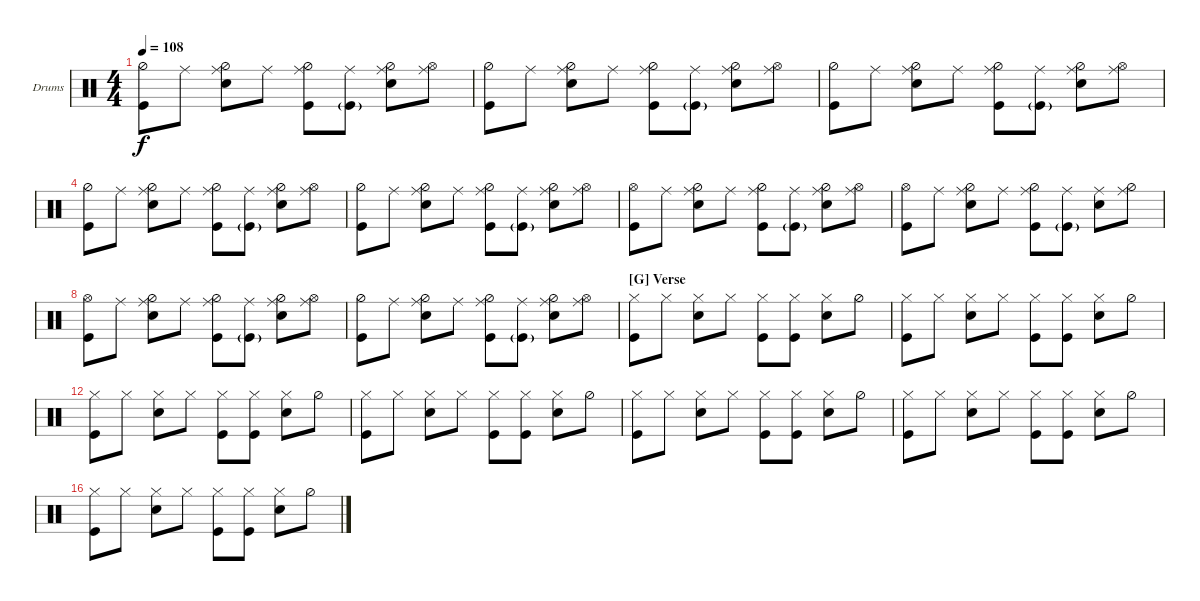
\defaultSystemsLayout 4
\bracketExtendMode nobrackets
\firstSystemTrackNameOrientation horizontal
\otherSystemsTrackNameOrientation horizontal
\defaultBarNumberDisplay FirstOfSystem
\track ("Drumkit" "Drums") {instrument percussion}
\staff {score}
\articulation defaults
\ts (4 4)
\tempo 108
\clef neutral
\ks c
("Kick (hit)" "Hi-Hat (half)").8{dy f} "Ride (middle)".8 ("Snare (hit) 2" "Hi-Hat (half)" "Ride (middle)").8 "Ride (middle)".8 ("Kick (hit)" "Hi-Hat (half)" "Ride (middle)").8 ("Kick (hit)"{g} "Ride (middle)").8 ("Snare (hit) 2" "Hi-Hat (half)" "Ride (middle)").8 ("Hi-Hat (open)" "Ride (middle)").8 |
("Kick (hit)" "Hi-Hat (half)").8 "Ride (middle)".8 ("Snare (hit) 2" "Hi-Hat (half)" "Ride (middle)").8 "Ride (middle)".8 ("Kick (hit)" "Hi-Hat (half)" "Ride (middle)").8 ("Kick (hit)"{g} "Ride (middle)").8 ("Snare (hit) 2" "Hi-Hat (half)" "Ride (middle)").8 ("Hi-Hat (open)" "Ride (middle)").8 |
("Kick (hit)" "Hi-Hat (half)").8 "Ride (middle)".8 ("Snare (hit) 2" "Hi-Hat (half)" "Ride (middle)").8 "Ride (middle)".8 ("Kick (hit)" "Hi-Hat (half)" "Ride (middle)").8 ("Kick (hit)"{g} "Ride (middle)").8 ("Snare (hit) 2" "Hi-Hat (half)" "Ride (middle)").8 ("Hi-Hat (open)" "Ride (middle)").8 |
("Kick (hit)" "Hi-Hat (half)").8 "Ride (middle)".8 ("Snare (hit) 2" "Hi-Hat (half)" "Ride (middle)").8 "Ride (middle)".8 ("Kick (hit)" "Hi-Hat (half)" "Ride (middle)").8 ("Kick (hit)"{g} "Ride (middle)").8 ("Snare (hit) 2" "Hi-Hat (half)" "Ride (middle)").8 ("Hi-Hat (open)" "Ride (middle)").8 |
("Kick (hit)" "Hi-Hat (half)").8 "Ride (middle)".8 ("Snare (hit) 2" "Hi-Hat (half)" "Ride (middle)").8 "Ride (middle)".8 ("Kick (hit)" "Hi-Hat (half)" "Ride (middle)").8 ("Kick (hit)"{g} "Ride (middle)").8 ("Snare (hit) 2" "Hi-Hat (half)" "Ride (middle)").8 ("Hi-Hat (open)" "Ride (middle)").8 |
("Kick (hit)" "Hi-Hat (open)").8 "Ride (middle)".8 ("Snare (hit) 2" "Hi-Hat (half)" "Ride (middle)").8 "Ride (middle)".8 ("Kick (hit)" "Hi-Hat (half)" "Ride (middle)").8 ("Kick (hit)"{g} "Ride (middle)").8 ("Snare (hit) 2" "Hi-Hat (half)" "Ride (middle)").8 ("Hi-Hat (open)" "Ride (middle)").8 |
("Kick (hit)" "Hi-Hat (open)").8 "Ride (middle)".8 ("Snare (hit) 2" "Hi-Hat (half)" "Ride (middle)").8 "Ride (middle)".8 ("Kick (hit)" "Hi-Hat (half)" "Ride (middle)").8 ("Kick (hit)"{g} "Ride (middle)").8 ("Snare (hit) 2" "Ride (middle)").8 ("Hi-Hat (half)" "Ride (middle)").8 |
("Kick (hit)" "Hi-Hat (open)").8 "Ride (middle)".8 ("Snare (hit) 2" "Hi-Hat (half)" "Ride (middle)").8 "Ride (middle)".8 ("Kick (hit)" "Hi-Hat (half)" "Ride (middle)").8 ("Kick (hit)"{g} "Ride (middle)").8 ("Snare (hit) 2" "Hi-Hat (half)" "Ride (middle)").8 ("Hi-Hat (open)" "Ride (middle)").8 |
("Kick (hit)" "Hi-Hat (half)").8 "Ride (middle)".8 ("Snare (hit) 2" "Hi-Hat (half)" "Ride (middle)").8 "Ride (middle)".8 ("Kick (hit)" "Hi-Hat (half)" "Ride (middle)").8 ("Kick (hit)"{g} "Ride (middle)").8 ("Snare (hit) 2" "Hi-Hat (half)" "Ride (middle)").8 ("Hi-Hat (open)" "Ride (middle)").8 |
\section ("G" "Verse")
("Kick (hit)" "Hi-Hat (closed)").8 "Hi-Hat (closed)".8 ("Snare (hit) 2" "Hi-Hat (closed)").8 "Hi-Hat (closed)".8 ("Kick (hit)" "Hi-Hat (closed)").8 ("Hi-Hat (closed)" "Kick (hit)").8 ("Snare (hit) 2" "Hi-Hat (closed)").8 "Hi-Hat (half)".8 |
("Kick (hit)" "Hi-Hat (closed)").8 "Hi-Hat (closed)".8 ("Snare (hit) 2" "Hi-Hat (closed)").8 "Hi-Hat (closed)".8 ("Kick (hit)" "Hi-Hat (closed)").8 ("Hi-Hat (closed)" "Kick (hit)").8 ("Snare (hit) 2" "Hi-Hat (closed)").8 "Hi-Hat (half)".8 |
("Kick (hit)" "Hi-Hat (closed)").8 "Hi-Hat (closed)".8 ("Snare (hit) 2" "Hi-Hat (closed)").8 "Hi-Hat (closed)".8 ("Hi-Hat (closed)" "Kick (hit)").8 ("Hi-Hat (closed)" "Kick (hit)").8 ("Snare (hit) 2" "Hi-Hat (closed)").8 "Hi-Hat (half)".8 |
("Kick (hit)" "Hi-Hat (closed)").8 "Hi-Hat (closed)".8 ("Snare (hit) 2" "Hi-Hat (closed)").8 "Hi-Hat (closed)".8 ("Kick (hit)" "Hi-Hat (closed)").8 ("Hi-Hat (closed)" "Kick (hit)").8 ("Snare (hit) 2" "Hi-Hat (closed)").8 "Hi-Hat (half)".8 |
("Kick (hit)" "Hi-Hat (closed)").8 "Hi-Hat (closed)".8 ("Snare (hit) 2" "Hi-Hat (closed)").8 "Hi-Hat (closed)".8 ("Hi-Hat (closed)" "Kick (hit)").8 ("Hi-Hat (closed)" "Kick (hit)").8 ("Snare (hit) 2" "Hi-Hat (closed)").8 "Hi-Hat (half)".8 |
("Kick (hit)" "Hi-Hat (closed)").8 "Hi-Hat (closed)".8 ("Snare (hit) 2" "Hi-Hat (closed)").8 "Hi-Hat (closed)".8 ("Kick (hit)" "Hi-Hat (closed)").8 ("Hi-Hat (closed)" "Kick (hit)").8 ("Snare (hit) 2" "Hi-Hat (closed)").8 "Hi-Hat (half)".8 |
("Kick (hit)" "Hi-Hat (closed)").8 "Hi-Hat (closed)".8 ("Snare (hit) 2" "Hi-Hat (closed)").8 "Hi-Hat (closed)".8 ("Hi-Hat (closed)" "Kick (hit)").8 ("Hi-Hat (closed)" "Kick (hit)").8 ("Snare (hit) 2" "Hi-Hat (closed)").8 "Hi-Hat (half)".8
